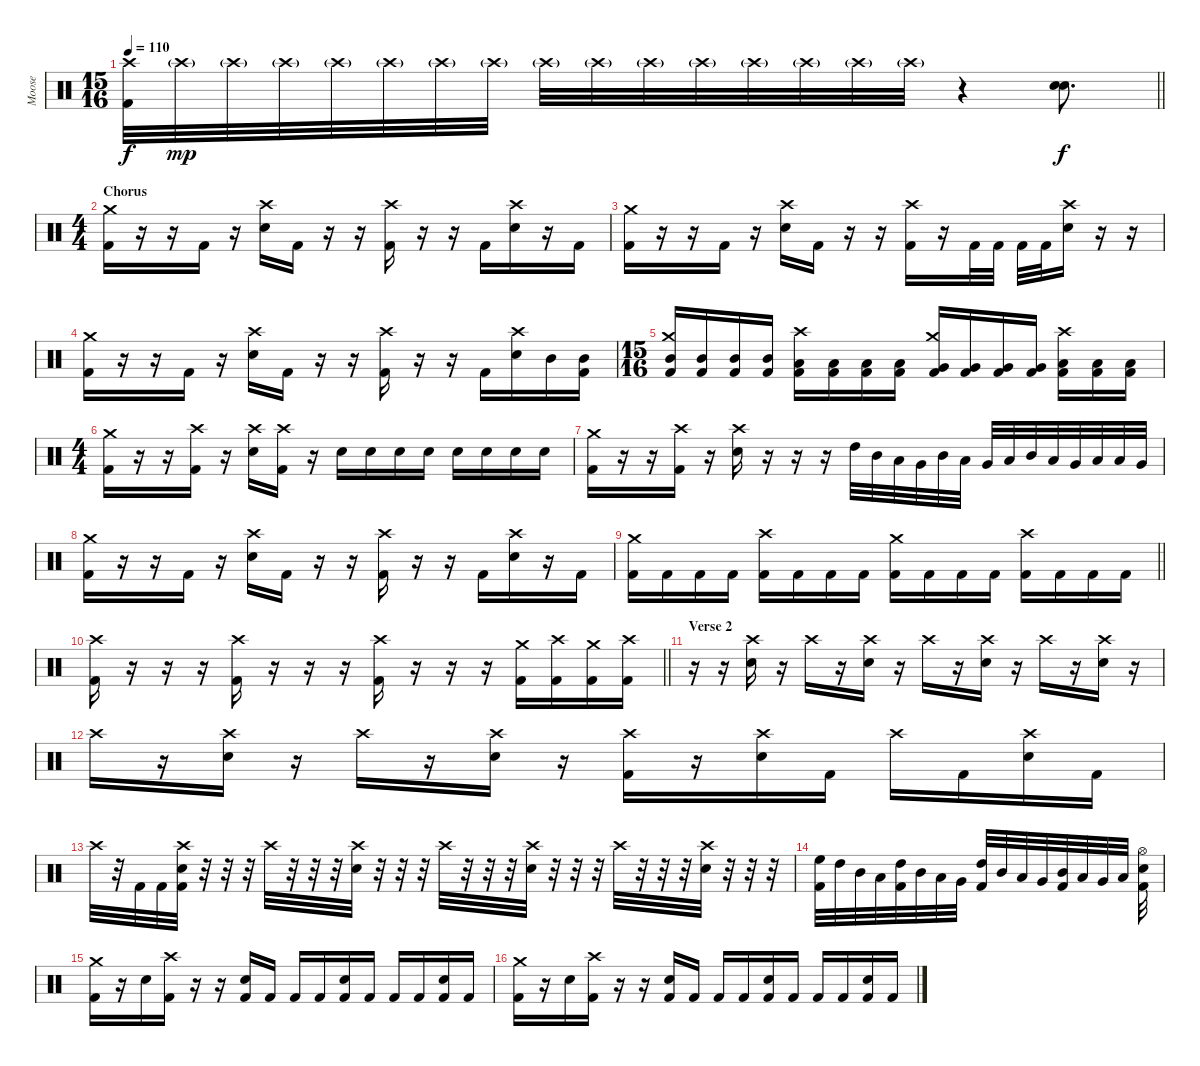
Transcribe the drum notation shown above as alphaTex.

\track ("Moose" "Moose") {instrument percussion}
\staff {score}
\articulation defaults
\ts (15 16)
\tempo 110
\clef neutral
\barLineRight lightlight
\ks c
("Crash high (hit)" "Kick (hit) 2").32{dy f volume 16} "Crash high (hit)"{g}.32{dy mp} "Crash high (hit)"{g}.32 "Crash high (hit)"{g}.32 "Crash high (hit)"{g}.32 "Crash high (hit)"{g}.32 "Crash high (hit)"{g}.32 "Crash high (hit)"{g}.32 "Crash high (hit)"{g}.32 "Crash high (hit)"{g}.32 "Crash high (hit)"{g}.32 "Crash high (hit)"{g}.32 "Crash high (hit)"{g}.32 "Crash high (hit)"{g}.32 "Crash high (hit)"{g}.32 "Crash high (hit)"{g}.32 r.4 ("Electric Snare (hit)" "Electric Snare (hit)").8{d dy f} |
\ts (4 4)
\section ("" "Chorus")
("Crash medium (hit)" "Kick (hit) 2").16 r.16 r.16 "Kick (hit) 2".16 r.16 ("Crash high (hit)" "Electric Snare (hit)").16 "Kick (hit) 2".16 r.16 r.16 ("Crash high (hit)" "Kick (hit) 2").16 r.16 r.16 "Kick (hit) 2".16 ("Crash high (hit)" "Electric Snare (hit)").16 r.16 "Kick (hit) 2".16 |
("Crash medium (hit)" "Kick (hit) 2").16 r.16 r.16 "Kick (hit) 2".16 r.16 ("Crash high (hit)" "Electric Snare (hit)").16 "Kick (hit) 2".16 r.16 r.16 ("Crash high (hit)" "Kick (hit) 2").16 r.16 "Kick (hit) 2".32 "Kick (hit) 2".32 "Kick (hit) 2".32 "Kick (hit) 2".32 ("Crash high (hit)" "Electric Snare (hit)").16 r.16 r.16 |
("Crash medium (hit)" "Kick (hit) 2").16 r.16 r.16 "Kick (hit) 2".16 r.16 ("Crash high (hit)" "Electric Snare (hit)").16 "Kick (hit) 2".16 r.16 r.16 ("Crash high (hit)" "Kick (hit) 2").16 r.16 r.16 "Kick (hit) 2".16 ("Crash high (hit)" "Electric Snare (hit)").16 "Mid Tom (hit)".16 ("Mid Tom (hit)" "Kick (hit) 2").16 |
\ts (15 16)
("Crash medium (hit)" "Mid Tom (hit)" "Kick (hit) 2").16 ("Mid Tom (hit)" "Kick (hit) 2").16 ("Mid Tom (hit)" "Kick (hit) 2").16 ("Mid Tom (hit)" "Kick (hit) 2").16 ("Crash high (hit)" "Low Tom (hit)" "Kick (hit) 2").16 ("Low Tom (hit)" "Kick (hit) 2").16 ("Low Tom (hit)" "Kick (hit) 2").16 ("Low Tom (hit)" "Kick (hit) 2").16 ("Crash medium (hit)" "Very Low Tom (hit)" "Kick (hit) 2").16 ("Very Low Tom (hit)" "Kick (hit) 2").16 ("Very Low Tom (hit)" "Kick (hit) 2").16 ("Very Low Tom (hit)" "Kick (hit) 2").16 ("Crash high (hit)" "Low Floor Tom (hit)" "Kick (hit) 2").16 ("Low Floor Tom (hit)" "Kick (hit) 2").16 ("Low Floor Tom (hit)" "Kick (hit) 2").16 |
\ts (4 4)
("Crash medium (hit)" "Kick (hit) 2").16 r.16 r.16 ("Crash high (hit)" "Kick (hit) 2").16 r.16 ("Crash high (hit)" "Electric Snare (hit)").16 ("Crash high (hit)" "Kick (hit) 2").16 r.16 "Electric Snare (hit)".16 "Electric Snare (hit)".16 "Electric Snare (hit)".16 "Electric Snare (hit)".16 "Electric Snare (hit)".16 "Electric Snare (hit)".16 "Electric Snare (hit)".16 "Electric Snare (hit)".16 |
("Crash medium (hit)" "Kick (hit) 2").16 r.16 r.16 ("Crash high (hit)" "Kick (hit) 2").16 r.16 ("Crash high (hit)" "Electric Snare (hit)").16 r.16 r.16 r.16 "High Tom (hit)".32 "Mid Tom (hit)".32 "Low Tom (hit)".32 "Very Low Tom (hit)".32 "Mid Tom (hit)".32 "Low Tom (hit)".32 "Very Low Tom (hit)".32 "Low Floor Tom (hit)".32 "Mid Tom (hit)".32 "Low Tom (hit)".32 "Very Low Tom (hit)".32 "Low Floor Tom (hit)".32 "Low Tom (hit)".32 "Very Low Tom (hit)".32 |
("Crash medium (hit)" "Kick (hit) 2").16 r.16 r.16 "Kick (hit) 2".16 r.16 ("Crash high (hit)" "Electric Snare (hit)").16 "Kick (hit) 2".16 r.16 r.16 ("Crash high (hit)" "Kick (hit) 2").16 r.16 r.16 "Kick (hit) 2".16 ("Crash high (hit)" "Electric Snare (hit)").16 r.16 "Kick (hit) 2".16 |
\barLineRight lightlight
("Crash medium (hit)" "Kick (hit) 2").16 "Kick (hit) 2".16 "Kick (hit) 2".16 "Kick (hit) 2".16 ("Crash high (hit)" "Kick (hit) 2").16 "Kick (hit) 2".16 "Kick (hit) 2".16 "Kick (hit) 2".16 ("Crash medium (hit)" "Kick (hit) 2").16 "Kick (hit) 2".16 "Kick (hit) 2".16 "Kick (hit) 2".16 ("Crash high (hit)" "Kick (hit) 2").16 "Kick (hit) 2".16 "Kick (hit) 2".16 "Kick (hit) 2".16 |
\barLineRight lightlight
("Crash high (hit)" "Kick (hit) 2").16 r.16 r.16 r.16 ("Crash high (hit)" "Kick (hit) 2").16 r.16 r.16 r.16 ("Crash high (hit)" "Kick (hit) 2").16 r.16 r.16 r.16 ("Crash medium (hit)" "Kick (hit) 2").16 ("Crash high (hit)" "Kick (hit) 2").16 ("Crash medium (hit)" "Kick (hit) 2").16 ("Crash high (hit)" "Kick (hit) 2").16 |
\section ("" "Verse 2")
r.16 r.16 ("Crash high (hit)" "Electric Snare (hit)").16 r.16 "Crash high (hit)".16 r.16 ("Crash high (hit)" "Electric Snare (hit)").16 r.16 "Crash high (hit)".16 r.16 ("Crash high (hit)" "Electric Snare (hit)").16 r.16 "Crash high (hit)".16 r.16 ("Crash high (hit)" "Electric Snare (hit)").16 r.16 |
"Crash high (hit)".16 r.16 ("Crash high (hit)" "Electric Snare (hit)").16 r.16 "Crash high (hit)".16 r.16 ("Crash high (hit)" "Electric Snare (hit)").16 r.16 ("Crash high (hit)" "Kick (hit) 2").16 r.16 ("Crash high (hit)" "Electric Snare (hit)").16 "Kick (hit) 2".16 "Crash high (hit)".16 "Kick (hit) 2".16 ("Crash high (hit)" "Electric Snare (hit)").16 "Kick (hit) 2".16 |
"Crash high (hit)".32 r.32 "Kick (hit) 2".32 "Kick (hit) 2".32 ("Crash high (hit)" "Electric Snare (hit)" "Kick (hit) 2").32 r.32 r.32 r.32 "Crash high (hit)".32 r.32 r.32 r.32 ("Crash high (hit)" "Electric Snare (hit)").32 r.32 r.32 r.32 "Crash high (hit)".32 r.32 r.32 r.32 ("Crash high (hit)" "Electric Snare (hit)").32 r.32 r.32 r.32 "Crash high (hit)".32 r.32 r.32 r.32 ("Crash high (hit)" "Electric Snare (hit)").32 r.32 r.32 r.32 |
("High Floor Tom (hit)" "Kick (hit) 2").32 "High Tom (hit)".32 "Mid Tom (hit)".32 "Low Tom (hit)".32 ("High Tom (hit)" "Kick (hit) 2").32 "Mid Tom (hit)".32 "Low Tom (hit)".32 "Very Low Tom (hit)".32 ("High Tom (hit)" "Kick (hit) 2").32 "Mid Tom (hit)".32 "Low Tom (hit)".32 "Very Low Tom (hit)".32 ("Mid Tom (hit)" "Kick (hit) 2").32 "Low Tom (hit)".32 "Very Low Tom (hit)".32 "Low Floor Tom (hit)".32 ("Hi-Hat (open)" "Electric Snare (hit)" "Kick (hit) 2").32 |
("Crash medium (hit)" "Kick (hit) 2").16 r.16 "Electric Snare (hit)".16 ("Crash high (hit)" "Kick (hit) 2").16 r.16 r.16 ("Electric Snare (hit)" "Kick (hit) 2").16 "Kick (hit) 2".16 "Kick (hit) 2".16 "Kick (hit) 2".16 ("Electric Snare (hit)" "Kick (hit) 2").16 "Kick (hit) 2".16 "Kick (hit) 2".16 "Kick (hit) 2".16 ("Electric Snare (hit)" "Kick (hit) 2").16 "Kick (hit) 2".16 |
("Crash medium (hit)" "Kick (hit) 2").16 r.16 "Electric Snare (hit)".16 ("Crash high (hit)" "Kick (hit) 2").16 r.16 r.16 ("Electric Snare (hit)" "Kick (hit) 2").16 "Kick (hit) 2".16 "Kick (hit) 2".16 "Kick (hit) 2".16 ("Electric Snare (hit)" "Kick (hit) 2").16 "Kick (hit) 2".16 "Kick (hit) 2".16 "Kick (hit) 2".16 ("Electric Snare (hit)" "Kick (hit) 2").16 "Kick (hit) 2".16
